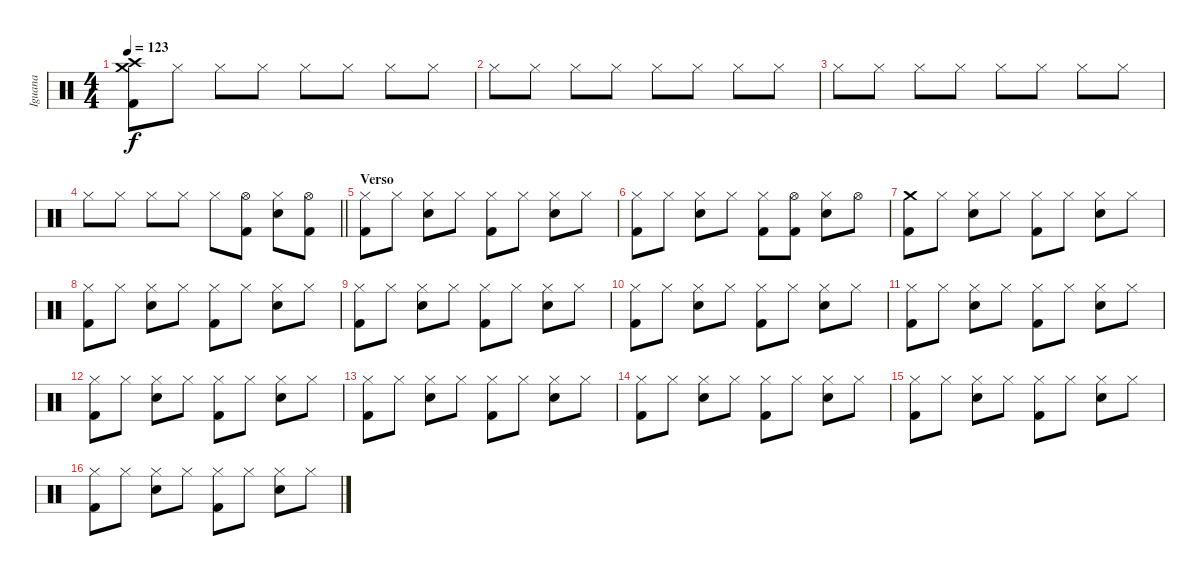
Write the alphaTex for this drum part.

\track ("Iguana" "Iguana") {instrument percussion}
\staff {score}
\articulation defaults
\ts (4 4)
\tempo 123
\clef neutral
\ks c
("Crash medium (hit)" "Crash high (hit)" "Kick (hit) 2").8{dy f} "Hi-Hat (closed)".8 "Hi-Hat (closed)".8 "Hi-Hat (closed)".8 "Hi-Hat (closed)".8 "Hi-Hat (closed)".8 "Hi-Hat (closed)".8 "Hi-Hat (closed)".8 |
"Hi-Hat (closed)".8 "Hi-Hat (closed)".8 "Hi-Hat (closed)".8 "Hi-Hat (closed)".8 "Hi-Hat (closed)".8 "Hi-Hat (closed)".8 "Hi-Hat (closed)".8 "Hi-Hat (closed)".8 |
"Hi-Hat (closed)".8 "Hi-Hat (closed)".8 "Hi-Hat (closed)".8 "Hi-Hat (closed)".8 "Hi-Hat (closed)".8 "Hi-Hat (closed)".8 "Hi-Hat (closed)".8 "Hi-Hat (closed)".8 |
\barLineRight lightlight "Hi-Hat (closed)".8 "Hi-Hat (closed)".8 "Hi-Hat (closed)".8 "Hi-Hat (closed)".8 "Hi-Hat (closed)".8
("Hi-Hat (open)" "Kick (hit) 2").8 ("Hi-Hat (closed)" "Snare (hit) 2").8 ("Hi-Hat (open)" "Kick (hit) 2").8 |
\section ("" "Verso")
("Hi-Hat (closed)" "Kick (hit) 2").8 "Hi-Hat (closed)".8 ("Hi-Hat (closed)" "Snare (hit) 2").8 "Hi-Hat (closed)".8 ("Hi-Hat (closed)" "Kick (hit) 2").8 "Hi-Hat (closed)".8 ("Hi-Hat (closed)" "Snare (hit) 2").8 "Hi-Hat (closed)".8 |
("Hi-Hat (closed)" "Kick (hit) 2").8 "Hi-Hat (closed)".8 ("Hi-Hat (closed)" "Snare (hit) 2").8 "Hi-Hat (closed)".8 ("Hi-Hat (closed)" "Kick (hit) 2").8 ("Hi-Hat (open)" "Kick (hit) 2").8 ("Hi-Hat (closed)" "Snare (hit) 2").8 "Hi-Hat (open)".8 |
("Crash medium (hit)" "Kick (hit) 2").8 "Hi-Hat (closed)".8 ("Hi-Hat (closed)" "Snare (hit) 2").8 "Hi-Hat (closed)".8 ("Hi-Hat (closed)" "Kick (hit) 2").8 "Hi-Hat (closed)".8 ("Hi-Hat (closed)" "Snare (hit) 2").8 "Hi-Hat (closed)".8 |
("Hi-Hat (closed)" "Kick (hit) 2").8 "Hi-Hat (closed)".8 ("Hi-Hat (closed)" "Snare (hit) 2").8 "Hi-Hat (closed)".8 ("Hi-Hat (closed)" "Kick (hit) 2").8 "Hi-Hat (closed)".8 ("Hi-Hat (closed)" "Snare (hit) 2").8 "Hi-Hat (closed)".8 |
("Hi-Hat (closed)" "Kick (hit) 2").8 "Hi-Hat (closed)".8 ("Hi-Hat (closed)" "Snare (hit) 2").8 "Hi-Hat (closed)".8 ("Hi-Hat (closed)" "Kick (hit) 2").8 "Hi-Hat (closed)".8 ("Hi-Hat (closed)" "Snare (hit) 2").8 "Hi-Hat (closed)".8 |
("Hi-Hat (closed)" "Kick (hit) 2").8 "Hi-Hat (closed)".8 ("Hi-Hat (closed)" "Snare (hit) 2").8 "Hi-Hat (closed)".8 ("Hi-Hat (closed)" "Kick (hit) 2").8 "Hi-Hat (closed)".8 ("Hi-Hat (closed)" "Snare (hit) 2").8 "Hi-Hat (closed)".8 |
("Hi-Hat (closed)" "Kick (hit) 2").8 "Hi-Hat (closed)".8 ("Hi-Hat (closed)" "Snare (hit) 2").8 "Hi-Hat (closed)".8 ("Hi-Hat (closed)" "Kick (hit) 2").8 "Hi-Hat (closed)".8 ("Hi-Hat (closed)" "Snare (hit) 2").8 "Hi-Hat (closed)".8 |
("Hi-Hat (closed)" "Kick (hit) 2").8 "Hi-Hat (closed)".8 ("Hi-Hat (closed)" "Snare (hit) 2").8 "Hi-Hat (closed)".8 ("Hi-Hat (closed)" "Kick (hit) 2").8 "Hi-Hat (closed)".8 ("Hi-Hat (closed)" "Snare (hit) 2").8 "Hi-Hat (closed)".8 |
("Hi-Hat (closed)" "Kick (hit) 2").8 "Hi-Hat (closed)".8 ("Hi-Hat (closed)" "Snare (hit) 2").8 "Hi-Hat (closed)".8 ("Hi-Hat (closed)" "Kick (hit) 2").8 "Hi-Hat (closed)".8 ("Hi-Hat (closed)" "Snare (hit) 2").8 "Hi-Hat (closed)".8 |
("Hi-Hat (closed)" "Kick (hit) 2").8 "Hi-Hat (closed)".8 ("Hi-Hat (closed)" "Snare (hit) 2").8 "Hi-Hat (closed)".8 ("Hi-Hat (closed)" "Kick (hit) 2").8 "Hi-Hat (closed)".8 ("Hi-Hat (closed)" "Snare (hit) 2").8 "Hi-Hat (closed)".8 |
("Hi-Hat (closed)" "Kick (hit) 2").8 "Hi-Hat (closed)".8 ("Hi-Hat (closed)" "Snare (hit) 2").8 "Hi-Hat (closed)".8 ("Hi-Hat (closed)" "Kick (hit) 2").8 "Hi-Hat (closed)".8 ("Hi-Hat (closed)" "Snare (hit) 2").8 "Hi-Hat (closed)".8 |
("Hi-Hat (closed)" "Kick (hit) 2").8 "Hi-Hat (closed)".8 ("Hi-Hat (closed)" "Snare (hit) 2").8 "Hi-Hat (closed)".8 ("Hi-Hat (closed)" "Kick (hit) 2").8 "Hi-Hat (closed)".8 ("Hi-Hat (closed)" "Snare (hit) 2").8 "Hi-Hat (closed)".8
